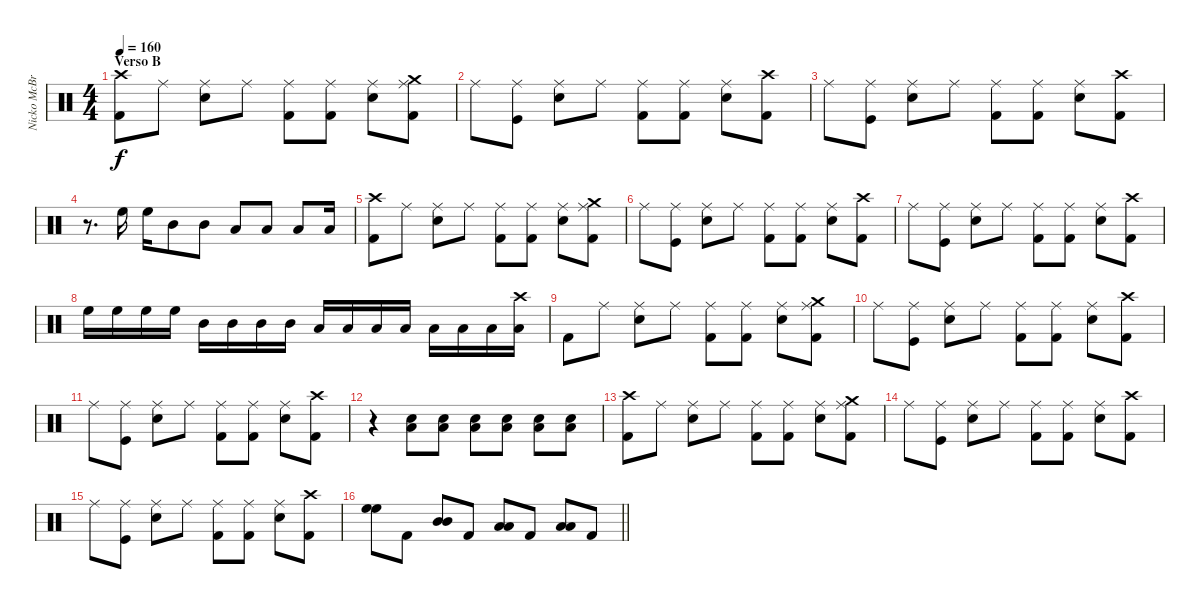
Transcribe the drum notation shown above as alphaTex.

\track ("Nicko McBrain" "Nicko McBr") {instrument percussion}
\staff {score}
\articulation defaults
\ts (4 4)
\section ("" "Verso B")
\tempo 160
\clef neutral
\ks c
("Crash high (hit)" "Kick (hit) 2").8{dy f} "Ride (middle)".8 ("Ride (middle)" "Snare (hit) 2").8 "Ride (middle)".8 ("Ride (middle)" "Kick (hit) 2").8 ("Ride (middle)" "Kick (hit) 2").8 ("Ride (middle)" "Snare (hit) 2").8 ("Ride (middle)" "Crash medium (hit)" "Kick (hit) 2").8 |
"Ride (middle)".8 ("Ride (middle)" "Kick (hit)").8 ("Ride (middle)" "Snare (hit) 2").8 "Ride (middle)".8 ("Ride (middle)" "Kick (hit) 2").8 ("Ride (middle)" "Kick (hit) 2").8 ("Ride (middle)" "Snare (hit) 2").8 ("Crash high (hit)" "Kick (hit) 2").8 |
"Ride (middle)".8 ("Ride (middle)" "Kick (hit)").8 ("Ride (middle)" "Snare (hit) 2").8 "Ride (middle)".8 ("Ride (middle)" "Kick (hit) 2").8 ("Ride (middle)" "Kick (hit) 2").8 ("Ride (middle)" "Snare (hit) 2").8 ("Crash high (hit)" "Kick (hit) 2").8 |
r.8{d} "High Floor Tom (hit)".16 "High Floor Tom (hit)".16 "Mid Tom (hit)".8 "Mid Tom (hit)".8 "Low Tom (hit)".8 "Low Tom (hit)".8 "Low Floor Tom (hit)".8 "Low Floor Tom (hit)".16 |
("Crash high (hit)" "Kick (hit) 2").8 "Ride (middle)".8 ("Ride (middle)" "Snare (hit) 2").8 "Ride (middle)".8 ("Ride (middle)" "Kick (hit) 2").8 ("Ride (middle)" "Kick (hit) 2").8 ("Ride (middle)" "Snare (hit) 2").8 ("Ride (middle)" "Crash medium (hit)" "Kick (hit) 2").8 |
"Ride (middle)".8 ("Ride (middle)" "Kick (hit)").8 ("Ride (middle)" "Snare (hit) 2").8 "Ride (middle)".8 ("Ride (middle)" "Kick (hit) 2").8 ("Ride (middle)" "Kick (hit) 2").8 ("Ride (middle)" "Snare (hit) 2").8 ("Crash high (hit)" "Kick (hit) 2").8 |
"Ride (middle)".8 ("Ride (middle)" "Kick (hit)").8 ("Ride (middle)" "Snare (hit) 2").8 "Ride (middle)".8 ("Ride (middle)" "Kick (hit) 2").8 ("Ride (middle)" "Kick (hit) 2").8 ("Ride (middle)" "Snare (hit) 2").8 ("Crash high (hit)" "Kick (hit) 2").8 |
"High Floor Tom (hit)".16 "High Floor Tom (hit)".16 "High Floor Tom (hit)".16 "High Floor Tom (hit)".16 "Mid Tom (hit)".16 "Mid Tom (hit)".16 "Mid Tom (hit)".16 "Mid Tom (hit)".16 "Low Tom (hit)".16 "Low Tom (hit)".16 "Low Tom (hit)".16 "Low Tom (hit)".16 "Low Floor Tom (hit)".16 "Low Floor Tom (hit)".16 "Low Floor Tom (hit)".16 ("Crash high (hit)" "Low Floor Tom (hit)").16 |
"Kick (hit) 2".8 "Ride (middle)".8 ("Ride (middle)" "Snare (hit) 2").8 "Ride (middle)".8 ("Ride (middle)" "Kick (hit) 2").8 ("Ride (middle)" "Kick (hit) 2").8 ("Ride (middle)" "Snare (hit) 2").8 ("Ride (middle)" "Crash medium (hit)" "Kick (hit) 2").8 |
"Ride (middle)".8 ("Ride (middle)" "Kick (hit)").8 ("Ride (middle)" "Snare (hit) 2").8 "Ride (middle)".8 ("Ride (middle)" "Kick (hit) 2").8 ("Ride (middle)" "Kick (hit) 2").8 ("Ride (middle)" "Snare (hit) 2").8 ("Crash high (hit)" "Kick (hit) 2").8 |
"Ride (middle)".8 ("Ride (middle)" "Kick (hit)").8 ("Ride (middle)" "Snare (hit) 2").8 "Ride (middle)".8 ("Ride (middle)" "Kick (hit) 2").8 ("Ride (middle)" "Kick (hit) 2").8 ("Ride (middle)" "Snare (hit) 2").8 ("Crash high (hit)" "Kick (hit) 2").8 |
r.4 ("Snare (hit) 2" "Low Floor Tom (hit)").8 ("Snare (hit) 2" "Low Floor Tom (hit)").8 ("Snare (hit) 2" "Low Floor Tom (hit)").8 ("Snare (hit) 2" "Low Floor Tom (hit)").8 ("Snare (hit) 2" "Low Floor Tom (hit)").8 ("Snare (hit) 2" "Low Floor Tom (hit)").8 |
("Crash high (hit)" "Kick (hit) 2").8 "Ride (middle)".8 ("Ride (middle)" "Snare (hit) 2").8 "Ride (middle)".8 ("Ride (middle)" "Kick (hit) 2").8 ("Ride (middle)" "Kick (hit) 2").8 ("Ride (middle)" "Snare (hit) 2").8 ("Ride (middle)" "Crash medium (hit)" "Kick (hit) 2").8 |
"Ride (middle)".8 ("Ride (middle)" "Kick (hit)").8 ("Ride (middle)" "Snare (hit) 2").8 "Ride (middle)".8 ("Ride (middle)" "Kick (hit) 2").8 ("Ride (middle)" "Kick (hit) 2").8 ("Ride (middle)" "Snare (hit) 2").8 ("Crash high (hit)" "Kick (hit) 2").8 |
"Ride (middle)".8 ("Ride (middle)" "Kick (hit)").8 ("Ride (middle)" "Snare (hit) 2").8 "Ride (middle)".8 ("Ride (middle)" "Kick (hit) 2").8 ("Ride (middle)" "Kick (hit) 2").8 ("Ride (middle)" "Snare (hit) 2").8 ("Crash high (hit)" "Kick (hit) 2").8 |
\barLineRight lightlight
("High Floor Tom (hit)" "High Floor Tom (hit)").8 "Kick (hit) 2".8 ("Mid Tom (hit)" "Mid Tom (hit)").8 "Kick (hit) 2".8 ("Low Tom (hit)" "Low Tom (hit)").8 "Kick (hit) 2".8 ("Low Floor Tom (hit)" "Low Floor Tom (hit)").8 "Kick (hit) 2".8
